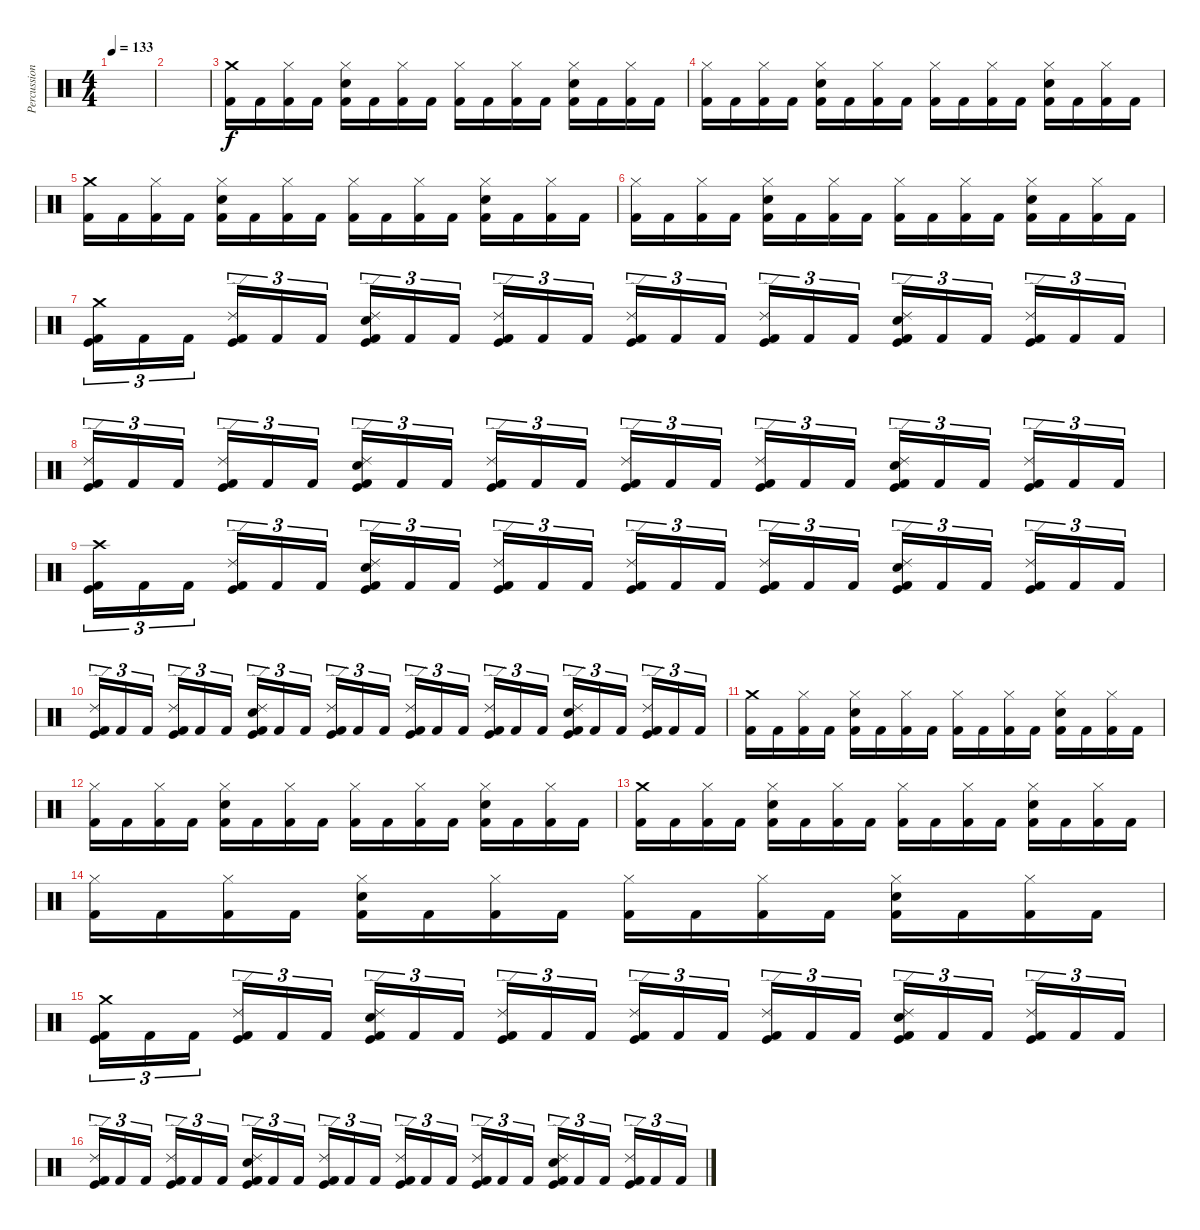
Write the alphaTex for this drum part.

\track ("Percussion" "Percussion") {instrument percussion}
\staff {score}
\articulation defaults
\ts (4 4)
\tempo 133
\clef neutral
\ks c
|
|
("Crash medium (hit)" "Kick (hit) 2").16 "Kick (hit) 2".16 ("Hi-Hat (closed)" "Kick (hit) 2").16 "Kick (hit) 2".16 ("Hi-Hat (closed)" "Electric Snare (hit)" "Kick (hit) 2").16 "Kick (hit) 2".16 ("Hi-Hat (closed)" "Kick (hit) 2").16 "Kick (hit) 2".16 ("Hi-Hat (closed)" "Kick (hit) 2").16 "Kick (hit) 2".16 ("Hi-Hat (closed)" "Kick (hit) 2").16 "Kick (hit) 2".16 ("Hi-Hat (closed)" "Electric Snare (hit)" "Kick (hit) 2").16 "Kick (hit) 2".16 ("Hi-Hat (closed)" "Kick (hit) 2").16 "Kick (hit) 2".16 |
("Hi-Hat (closed)" "Kick (hit) 2").16 "Kick (hit) 2".16 ("Hi-Hat (closed)" "Kick (hit) 2").16 "Kick (hit) 2".16 ("Hi-Hat (closed)" "Electric Snare (hit)" "Kick (hit) 2").16 "Kick (hit) 2".16 ("Hi-Hat (closed)" "Kick (hit) 2").16 "Kick (hit) 2".16 ("Hi-Hat (closed)" "Kick (hit) 2").16 "Kick (hit) 2".16 ("Hi-Hat (closed)" "Kick (hit) 2").16 "Kick (hit) 2".16 ("Hi-Hat (closed)" "Electric Snare (hit)" "Kick (hit) 2").16 "Kick (hit) 2".16 ("Hi-Hat (closed)" "Kick (hit) 2").16 "Kick (hit) 2".16 |
("Crash medium (hit)" "Kick (hit) 2").16 "Kick (hit) 2".16 ("Hi-Hat (closed)" "Kick (hit) 2").16 "Kick (hit) 2".16 ("Hi-Hat (closed)" "Electric Snare (hit)" "Kick (hit) 2").16 "Kick (hit) 2".16 ("Hi-Hat (closed)" "Kick (hit) 2").16 "Kick (hit) 2".16 ("Hi-Hat (closed)" "Kick (hit) 2").16 "Kick (hit) 2".16 ("Hi-Hat (closed)" "Kick (hit) 2").16 "Kick (hit) 2".16 ("Hi-Hat (closed)" "Electric Snare (hit)" "Kick (hit) 2").16 "Kick (hit) 2".16 ("Hi-Hat (closed)" "Kick (hit) 2").16 "Kick (hit) 2".16 |
("Hi-Hat (closed)" "Kick (hit) 2").16 "Kick (hit) 2".16 ("Hi-Hat (closed)" "Kick (hit) 2").16 "Kick (hit) 2".16 ("Hi-Hat (closed)" "Electric Snare (hit)" "Kick (hit) 2").16 "Kick (hit) 2".16 ("Hi-Hat (closed)" "Kick (hit) 2").16 "Kick (hit) 2".16 ("Hi-Hat (closed)" "Kick (hit) 2").16 "Kick (hit) 2".16 ("Hi-Hat (closed)" "Kick (hit) 2").16 "Kick (hit) 2".16 ("Hi-Hat (closed)" "Electric Snare (hit)" "Kick (hit) 2").16 "Kick (hit) 2".16 ("Hi-Hat (closed)" "Kick (hit) 2").16 "Kick (hit) 2".16 |
("Crash medium (hit)" "Kick (hit)" "Kick (hit) 2").16{tu (3 2)} "Kick (hit) 2".16{tu (3 2)} "Kick (hit) 2".16{tu (3 2)} ("Ride (edge) 2" "Kick (hit)" "Kick (hit) 2").16{tu (3 2)} "Kick (hit) 2".16{tu (3 2)} "Kick (hit) 2".16{tu (3 2)} ("Ride (edge) 2" "Electric Snare (hit)" "Kick (hit)" "Kick (hit) 2").16{tu (3 2)} "Kick (hit) 2".16{tu (3 2)} "Kick (hit) 2".16{tu (3 2)} ("Ride (edge) 2" "Kick (hit)" "Kick (hit) 2").16{tu (3 2)} "Kick (hit) 2".16{tu (3 2)} "Kick (hit) 2".16{tu (3 2)} ("Ride (edge) 2" "Kick (hit)" "Kick (hit) 2").16{tu (3 2)} "Kick (hit) 2".16{tu (3 2)} "Kick (hit) 2".16{tu (3 2)} ("Ride (edge) 2" "Kick (hit)" "Kick (hit) 2").16{tu (3 2)} "Kick (hit) 2".16{tu (3 2)} "Kick (hit) 2".16{tu (3 2)} ("Ride (edge) 2" "Electric Snare (hit)" "Kick (hit)" "Kick (hit) 2").16{tu (3 2)} "Kick (hit) 2".16{tu (3 2)} "Kick (hit) 2".16{tu (3 2)} ("Ride (edge) 2" "Kick (hit)" "Kick (hit) 2").16{tu (3 2)} "Kick (hit) 2".16{tu (3 2)} "Kick (hit) 2".16{tu (3 2)} |
("Ride (edge) 2" "Kick (hit)" "Kick (hit) 2").16{tu (3 2)} "Kick (hit) 2".16{tu (3 2)} "Kick (hit) 2".16{tu (3 2)} ("Ride (edge) 2" "Kick (hit)" "Kick (hit) 2").16{tu (3 2)} "Kick (hit) 2".16{tu (3 2)} "Kick (hit) 2".16{tu (3 2)} ("Ride (edge) 2" "Electric Snare (hit)" "Kick (hit)" "Kick (hit) 2").16{tu (3 2)} "Kick (hit) 2".16{tu (3 2)} "Kick (hit) 2".16{tu (3 2)} ("Ride (edge) 2" "Kick (hit)" "Kick (hit) 2").16{tu (3 2)} "Kick (hit) 2".16{tu (3 2)} "Kick (hit) 2".16{tu (3 2)} ("Ride (edge) 2" "Kick (hit)" "Kick (hit) 2").16{tu (3 2)} "Kick (hit) 2".16{tu (3 2)} "Kick (hit) 2".16{tu (3 2)} ("Ride (edge) 2" "Kick (hit)" "Kick (hit) 2").16{tu (3 2)} "Kick (hit) 2".16{tu (3 2)} "Kick (hit) 2".16{tu (3 2)} ("Ride (edge) 2" "Electric Snare (hit)" "Kick (hit)" "Kick (hit) 2").16{tu (3 2)} "Kick (hit) 2".16{tu (3 2)} "Kick (hit) 2".16{tu (3 2)} ("Ride (edge) 2" "Kick (hit)" "Kick (hit) 2").16{tu (3 2)} "Kick (hit) 2".16{tu (3 2)} "Kick (hit) 2".16{tu (3 2)} |
("Crash high (hit)" "Kick (hit)" "Kick (hit) 2").16{tu (3 2)} "Kick (hit) 2".16{tu (3 2)} "Kick (hit) 2".16{tu (3 2)} ("Ride (edge) 2" "Kick (hit)" "Kick (hit) 2").16{tu (3 2)} "Kick (hit) 2".16{tu (3 2)} "Kick (hit) 2".16{tu (3 2)} ("Ride (edge) 2" "Electric Snare (hit)" "Kick (hit)" "Kick (hit) 2").16{tu (3 2)} "Kick (hit) 2".16{tu (3 2)} "Kick (hit) 2".16{tu (3 2)} ("Ride (edge) 2" "Kick (hit)" "Kick (hit) 2").16{tu (3 2)} "Kick (hit) 2".16{tu (3 2)} "Kick (hit) 2".16{tu (3 2)} ("Ride (edge) 2" "Kick (hit)" "Kick (hit) 2").16{tu (3 2)} "Kick (hit) 2".16{tu (3 2)} "Kick (hit) 2".16{tu (3 2)} ("Ride (edge) 2" "Kick (hit)" "Kick (hit) 2").16{tu (3 2)} "Kick (hit) 2".16{tu (3 2)} "Kick (hit) 2".16{tu (3 2)} ("Ride (edge) 2" "Electric Snare (hit)" "Kick (hit)" "Kick (hit) 2").16{tu (3 2)} "Kick (hit) 2".16{tu (3 2)} "Kick (hit) 2".16{tu (3 2)} ("Ride (edge) 2" "Kick (hit)" "Kick (hit) 2").16{tu (3 2)} "Kick (hit) 2".16{tu (3 2)} "Kick (hit) 2".16{tu (3 2)} |
("Ride (edge) 2" "Kick (hit)" "Kick (hit) 2").16{tu (3 2)} "Kick (hit) 2".16{tu (3 2)} "Kick (hit) 2".16{tu (3 2)} ("Ride (edge) 2" "Kick (hit)" "Kick (hit) 2").16{tu (3 2)} "Kick (hit) 2".16{tu (3 2)} "Kick (hit) 2".16{tu (3 2)} ("Ride (edge) 2" "Electric Snare (hit)" "Kick (hit)" "Kick (hit) 2").16{tu (3 2)} "Kick (hit) 2".16{tu (3 2)} "Kick (hit) 2".16{tu (3 2)} ("Ride (edge) 2" "Kick (hit)" "Kick (hit) 2").16{tu (3 2)} "Kick (hit) 2".16{tu (3 2)} "Kick (hit) 2".16{tu (3 2)} ("Ride (edge) 2" "Kick (hit)" "Kick (hit) 2").16{tu (3 2)} "Kick (hit) 2".16{tu (3 2)} "Kick (hit) 2".16{tu (3 2)} ("Ride (edge) 2" "Kick (hit)" "Kick (hit) 2").16{tu (3 2)} "Kick (hit) 2".16{tu (3 2)} "Kick (hit) 2".16{tu (3 2)} ("Ride (edge) 2" "Electric Snare (hit)" "Kick (hit)" "Kick (hit) 2").16{tu (3 2)} "Kick (hit) 2".16{tu (3 2)} "Kick (hit) 2".16{tu (3 2)} ("Ride (edge) 2" "Kick (hit)" "Kick (hit) 2").16{tu (3 2)} "Kick (hit) 2".16{tu (3 2)} "Kick (hit) 2".16{tu (3 2)} |
("Crash medium (hit)" "Kick (hit) 2").16 "Kick (hit) 2".16 ("Hi-Hat (closed)" "Kick (hit) 2").16 "Kick (hit) 2".16 ("Hi-Hat (closed)" "Electric Snare (hit)" "Kick (hit) 2").16 "Kick (hit) 2".16 ("Hi-Hat (closed)" "Kick (hit) 2").16 "Kick (hit) 2".16 ("Hi-Hat (closed)" "Kick (hit) 2").16 "Kick (hit) 2".16 ("Hi-Hat (closed)" "Kick (hit) 2").16 "Kick (hit) 2".16 ("Hi-Hat (closed)" "Electric Snare (hit)" "Kick (hit) 2").16 "Kick (hit) 2".16 ("Hi-Hat (closed)" "Kick (hit) 2").16 "Kick (hit) 2".16 |
("Hi-Hat (closed)" "Kick (hit) 2").16 "Kick (hit) 2".16 ("Hi-Hat (closed)" "Kick (hit) 2").16 "Kick (hit) 2".16 ("Hi-Hat (closed)" "Electric Snare (hit)" "Kick (hit) 2").16 "Kick (hit) 2".16 ("Hi-Hat (closed)" "Kick (hit) 2").16 "Kick (hit) 2".16 ("Hi-Hat (closed)" "Kick (hit) 2").16 "Kick (hit) 2".16 ("Hi-Hat (closed)" "Kick (hit) 2").16 "Kick (hit) 2".16 ("Hi-Hat (closed)" "Electric Snare (hit)" "Kick (hit) 2").16 "Kick (hit) 2".16 ("Hi-Hat (closed)" "Kick (hit) 2").16 "Kick (hit) 2".16 |
("Crash medium (hit)" "Kick (hit) 2").16 "Kick (hit) 2".16 ("Hi-Hat (closed)" "Kick (hit) 2").16 "Kick (hit) 2".16 ("Hi-Hat (closed)" "Electric Snare (hit)" "Kick (hit) 2").16 "Kick (hit) 2".16 ("Hi-Hat (closed)" "Kick (hit) 2").16 "Kick (hit) 2".16 ("Hi-Hat (closed)" "Kick (hit) 2").16 "Kick (hit) 2".16 ("Hi-Hat (closed)" "Kick (hit) 2").16 "Kick (hit) 2".16 ("Hi-Hat (closed)" "Electric Snare (hit)" "Kick (hit) 2").16 "Kick (hit) 2".16 ("Hi-Hat (closed)" "Kick (hit) 2").16 "Kick (hit) 2".16 |
("Hi-Hat (closed)" "Kick (hit) 2").16 "Kick (hit) 2".16 ("Hi-Hat (closed)" "Kick (hit) 2").16 "Kick (hit) 2".16 ("Hi-Hat (closed)" "Electric Snare (hit)" "Kick (hit) 2").16 "Kick (hit) 2".16 ("Hi-Hat (closed)" "Kick (hit) 2").16 "Kick (hit) 2".16 ("Hi-Hat (closed)" "Kick (hit) 2").16 "Kick (hit) 2".16 ("Hi-Hat (closed)" "Kick (hit) 2").16 "Kick (hit) 2".16 ("Hi-Hat (closed)" "Electric Snare (hit)" "Kick (hit) 2").16 "Kick (hit) 2".16 ("Hi-Hat (closed)" "Kick (hit) 2").16 "Kick (hit) 2".16 |
("Crash medium (hit)" "Kick (hit)" "Kick (hit) 2").16{tu (3 2)} "Kick (hit) 2".16{tu (3 2)} "Kick (hit) 2".16{tu (3 2)} ("Ride (edge) 2" "Kick (hit)" "Kick (hit) 2").16{tu (3 2)} "Kick (hit) 2".16{tu (3 2)} "Kick (hit) 2".16{tu (3 2)} ("Ride (edge) 2" "Electric Snare (hit)" "Kick (hit)" "Kick (hit) 2").16{tu (3 2)} "Kick (hit) 2".16{tu (3 2)} "Kick (hit) 2".16{tu (3 2)} ("Ride (edge) 2" "Kick (hit)" "Kick (hit) 2").16{tu (3 2)} "Kick (hit) 2".16{tu (3 2)} "Kick (hit) 2".16{tu (3 2)} ("Ride (edge) 2" "Kick (hit)" "Kick (hit) 2").16{tu (3 2)} "Kick (hit) 2".16{tu (3 2)} "Kick (hit) 2".16{tu (3 2)} ("Ride (edge) 2" "Kick (hit)" "Kick (hit) 2").16{tu (3 2)} "Kick (hit) 2".16{tu (3 2)} "Kick (hit) 2".16{tu (3 2)} ("Ride (edge) 2" "Electric Snare (hit)" "Kick (hit)" "Kick (hit) 2").16{tu (3 2)} "Kick (hit) 2".16{tu (3 2)} "Kick (hit) 2".16{tu (3 2)} ("Ride (edge) 2" "Kick (hit)" "Kick (hit) 2").16{tu (3 2)} "Kick (hit) 2".16{tu (3 2)} "Kick (hit) 2".16{tu (3 2)} |
("Ride (edge) 2" "Kick (hit)" "Kick (hit) 2").16{tu (3 2)} "Kick (hit) 2".16{tu (3 2)} "Kick (hit) 2".16{tu (3 2)} ("Ride (edge) 2" "Kick (hit)" "Kick (hit) 2").16{tu (3 2)} "Kick (hit) 2".16{tu (3 2)} "Kick (hit) 2".16{tu (3 2)} ("Ride (edge) 2" "Electric Snare (hit)" "Kick (hit)" "Kick (hit) 2").16{tu (3 2)} "Kick (hit) 2".16{tu (3 2)} "Kick (hit) 2".16{tu (3 2)} ("Ride (edge) 2" "Kick (hit)" "Kick (hit) 2").16{tu (3 2)} "Kick (hit) 2".16{tu (3 2)} "Kick (hit) 2".16{tu (3 2)} ("Ride (edge) 2" "Kick (hit)" "Kick (hit) 2").16{tu (3 2)} "Kick (hit) 2".16{tu (3 2)} "Kick (hit) 2".16{tu (3 2)} ("Ride (edge) 2" "Kick (hit)" "Kick (hit) 2").16{tu (3 2)} "Kick (hit) 2".16{tu (3 2)} "Kick (hit) 2".16{tu (3 2)} ("Ride (edge) 2" "Electric Snare (hit)" "Kick (hit)" "Kick (hit) 2").16{tu (3 2)} "Kick (hit) 2".16{tu (3 2)} "Kick (hit) 2".16{tu (3 2)} ("Ride (edge) 2" "Kick (hit)" "Kick (hit) 2").16{tu (3 2)} "Kick (hit) 2".16{tu (3 2)} "Kick (hit) 2".16{tu (3 2)}
